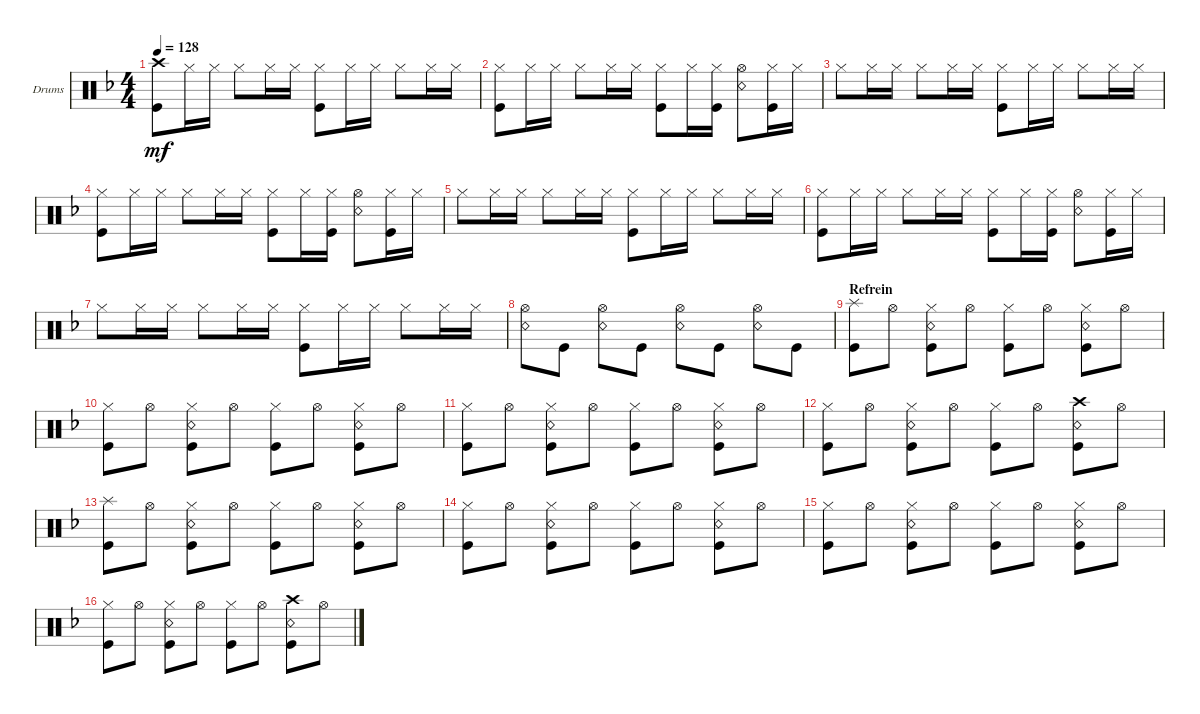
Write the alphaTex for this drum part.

\defaultSystemsLayout 4
\bracketExtendMode groupsimilarinstruments
\firstSystemTrackNameOrientation horizontal
\otherSystemsTrackNameOrientation horizontal
\track ("Drumkit" "Drums") {instrument percussion}
\staff {score}
\articulation defaults
\ts (4 4)
\tempo 128
\clef neutral
\scale
0.333333
\ks f
("Kick (hit)" "Crash high (hit)").8{dy mf} "Hi-Hat (closed)".16 "Hi-Hat (closed)".16 "Hi-Hat (closed)".8 "Hi-Hat (closed)".16 "Hi-Hat (closed)".16 ("Hi-Hat (closed)" "Kick (hit)").8 "Hi-Hat (closed)".16 "Hi-Hat (closed)".16 "Hi-Hat (closed)".8 "Hi-Hat (closed)".16 "Hi-Hat (closed)".16 |
\scale
0.333333 ("Hi-Hat (closed)" "Kick (hit)").8 "Hi-Hat (closed)".16 "Hi-Hat (closed)".16 "Hi-Hat (closed)".8 "Hi-Hat (closed)".16 "Hi-Hat (closed)".16 ("Hi-Hat (closed)" "Kick (hit)").8 "Hi-Hat (closed)".16 ("Hi-Hat (closed)" "Kick (hit)").16 ("Hi-Hat (open)" "Snare (rim shot)").8 ("Hi-Hat (closed)" "Kick (hit)").16 "Hi-Hat (closed)".16 |
\scale
0.333333 "Hi-Hat (closed)".8 "Hi-Hat (closed)".16 "Hi-Hat (closed)".16 "Hi-Hat (closed)".8 "Hi-Hat (closed)".16 "Hi-Hat (closed)".16 ("Hi-Hat (closed)" "Kick (hit)").8 "Hi-Hat (closed)".16 "Hi-Hat (closed)".16 "Hi-Hat (closed)".8 "Hi-Hat (closed)".16 "Hi-Hat (closed)".16 |
\scale
0.333333 ("Hi-Hat (closed)" "Kick (hit)").8 "Hi-Hat (closed)".16 "Hi-Hat (closed)".16 "Hi-Hat (closed)".8 "Hi-Hat (closed)".16 "Hi-Hat (closed)".16 ("Hi-Hat (closed)" "Kick (hit)").8 "Hi-Hat (closed)".16 ("Hi-Hat (closed)" "Kick (hit)").16 ("Hi-Hat (open)" "Snare (rim shot)").8 ("Hi-Hat (closed)" "Kick (hit)").16 "Hi-Hat (closed)".16 |
\scale
0.333333 "Hi-Hat (closed)".8 "Hi-Hat (closed)".16 "Hi-Hat (closed)".16 "Hi-Hat (closed)".8 "Hi-Hat (closed)".16 "Hi-Hat (closed)".16 ("Hi-Hat (closed)" "Kick (hit)").8 "Hi-Hat (closed)".16 "Hi-Hat (closed)".16 "Hi-Hat (closed)".8 "Hi-Hat (closed)".16 "Hi-Hat (closed)".16 |
\scale
0.333333 ("Hi-Hat (closed)" "Kick (hit)").8 "Hi-Hat (closed)".16 "Hi-Hat (closed)".16 "Hi-Hat (closed)".8 "Hi-Hat (closed)".16 "Hi-Hat (closed)".16 ("Hi-Hat (closed)" "Kick (hit)").8 "Hi-Hat (closed)".16 ("Hi-Hat (closed)" "Kick (hit)").16 ("Hi-Hat (open)" "Snare (rim shot)").8 ("Hi-Hat (closed)" "Kick (hit)").16 "Hi-Hat (closed)".16 |
\scale
0.333333 "Hi-Hat (closed)".8 "Hi-Hat (closed)".16 "Hi-Hat (closed)".16 "Hi-Hat (closed)".8 "Hi-Hat (closed)".16 "Hi-Hat (closed)".16 ("Hi-Hat (closed)" "Kick (hit)").8 "Hi-Hat (closed)".16 "Hi-Hat (closed)".16 "Hi-Hat (closed)".8 "Hi-Hat (closed)".16 "Hi-Hat (closed)".16 |
\scale
0.333333 ("Hi-Hat (open)" "Snare (rim shot)").8 "Kick (hit)".8 ("Hi-Hat (open)" "Snare (rim shot)").8 "Kick (hit)".8 ("Hi-Hat (open)" "Snare (rim shot)").8 "Kick (hit)".8 ("Hi-Hat (open)" "Snare (rim shot)").8 "Kick (hit)".8 |
\section ("" "Refrein")
\scale
0.333333 ("Kick (hit)" "Splash (hit)").8 "Hi-Hat (open)".8 ("Snare (rim shot)" "Kick (hit)" "Hi-Hat (closed)").8 "Hi-Hat (open)".8 ("Hi-Hat (closed)" "Kick (hit)").8 "Hi-Hat (open)".8 ("Snare (rim shot)" "Kick (hit)" "Hi-Hat (closed)").8 "Hi-Hat (open)".8 |
\scale
0.333333 ("Hi-Hat (closed)" "Kick (hit)").8 "Hi-Hat (open)".8 ("Snare (rim shot)" "Kick (hit)" "Hi-Hat (closed)").8 "Hi-Hat (open)".8 ("Hi-Hat (closed)" "Kick (hit)").8 "Hi-Hat (open)".8 ("Snare (rim shot)" "Kick (hit)" "Hi-Hat (closed)").8 "Hi-Hat (open)".8 |
\scale
0.333333 ("Hi-Hat (closed)" "Kick (hit)").8 "Hi-Hat (open)".8 ("Snare (rim shot)" "Kick (hit)" "Hi-Hat (closed)").8 "Hi-Hat (open)".8 ("Hi-Hat (closed)" "Kick (hit)").8 "Hi-Hat (open)".8 ("Snare (rim shot)" "Kick (hit)" "Hi-Hat (closed)").8 "Hi-Hat (open)".8 |
("Hi-Hat (closed)" "Kick (hit)").8 "Hi-Hat (open)".8 ("Snare (rim shot)" "Kick (hit)" "Hi-Hat (closed)").8 "Hi-Hat (open)".8 ("Hi-Hat (closed)" "Kick (hit)").8 "Hi-Hat (open)".8 ("Snare (rim shot)" "Kick (hit)" "Crash high (hit)").8 "Hi-Hat (open)".8 |
("Kick (hit)" "Splash (hit)").8 "Hi-Hat (open)".8 ("Snare (rim shot)" "Kick (hit)" "Hi-Hat (closed)").8 "Hi-Hat (open)".8 ("Hi-Hat (closed)" "Kick (hit)").8 "Hi-Hat (open)".8 ("Snare (rim shot)" "Kick (hit)" "Hi-Hat (closed)").8 "Hi-Hat (open)".8 |
("Hi-Hat (closed)" "Kick (hit)").8 "Hi-Hat (open)".8 ("Snare (rim shot)" "Kick (hit)" "Hi-Hat (closed)").8 "Hi-Hat (open)".8 ("Hi-Hat (closed)" "Kick (hit)").8 "Hi-Hat (open)".8 ("Snare (rim shot)" "Kick (hit)" "Hi-Hat (closed)").8 "Hi-Hat (open)".8 |
("Hi-Hat (closed)" "Kick (hit)").8 "Hi-Hat (open)".8 ("Snare (rim shot)" "Kick (hit)" "Hi-Hat (closed)").8 "Hi-Hat (open)".8 ("Hi-Hat (closed)" "Kick (hit)").8 "Hi-Hat (open)".8 ("Snare (rim shot)" "Kick (hit)" "Hi-Hat (closed)").8 "Hi-Hat (open)".8 |
("Hi-Hat (closed)" "Kick (hit)").8 "Hi-Hat (open)".8 ("Snare (rim shot)" "Kick (hit)" "Hi-Hat (closed)").8 "Hi-Hat (open)".8 ("Hi-Hat (closed)" "Kick (hit)").8 "Hi-Hat (open)".8 ("Snare (rim shot)" "Kick (hit)" "Crash high (hit)").8 "Hi-Hat (open)".8
